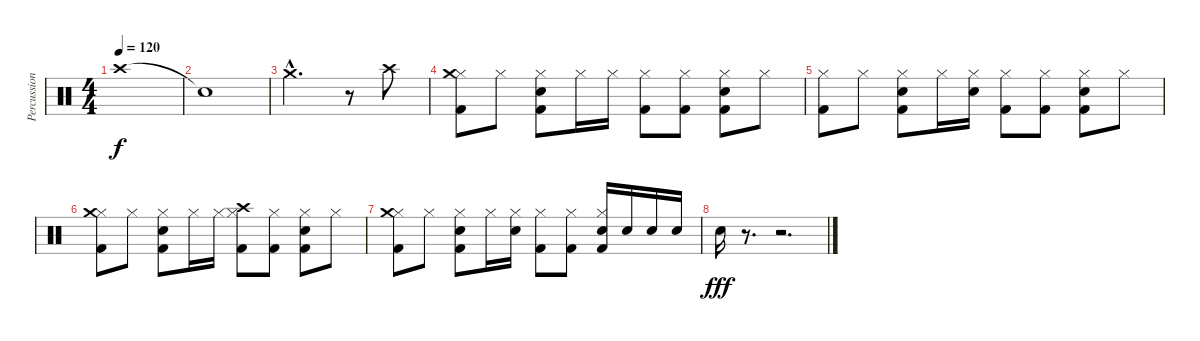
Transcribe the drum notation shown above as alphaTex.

\track ("Percussions" "Percussion") {instrument percussion}
\staff {score}
\articulation defaults
\ts (4 4)
\tempo 120
\clef neutral
\ks c "Crash high (hit)".1{dy f}
|
"Snare (hit)"{t}.1 |
"Crash medium (hit)"{hac}.2{d} r.8 "Crash high (hit)".8 |
("Hi-Hat (closed)" "Crash medium (hit)" "Kick (hit) 2").8 "Hi-Hat (closed)".8 ("Hi-Hat (closed)" "Snare (hit) 2" "Kick (hit) 2").8 "Hi-Hat (closed)".16 "Hi-Hat (closed)".16 ("Hi-Hat (closed)" "Kick (hit) 2").8 ("Hi-Hat (closed)" "Kick (hit) 2").8 ("Hi-Hat (closed)" "Snare (hit) 2" "Kick (hit) 2").8 "Hi-Hat (closed)".8 |
("Hi-Hat (closed)" "Kick (hit) 2").8 "Hi-Hat (closed)".8 ("Hi-Hat (closed)" "Snare (hit) 2" "Kick (hit) 2").8 "Hi-Hat (closed)".16 ("Hi-Hat (closed)" "Snare (hit) 2").16 ("Hi-Hat (closed)" "Kick (hit) 2").8 ("Hi-Hat (closed)" "Kick (hit) 2").8 ("Hi-Hat (closed)" "Snare (hit) 2" "Kick (hit) 2").8 "Hi-Hat (closed)".8 |
("Hi-Hat (closed)" "Crash medium (hit)" "Kick (hit) 2").8 "Hi-Hat (closed)".8 ("Hi-Hat (closed)" "Snare (hit) 2" "Kick (hit) 2").8 "Hi-Hat (closed)".16 "Hi-Hat (closed)".16 ("Hi-Hat (closed)" "Crash high (hit)" "Kick (hit) 2").8 ("Hi-Hat (closed)" "Kick (hit) 2").8 ("Hi-Hat (closed)" "Snare (hit) 2" "Kick (hit) 2").8 "Hi-Hat (closed)".8 |
("Hi-Hat (closed)" "Crash medium (hit)" "Kick (hit) 2").8 "Hi-Hat (closed)".8 ("Hi-Hat (closed)" "Snare (hit) 2" "Kick (hit) 2").8 "Hi-Hat (closed)".16 ("Hi-Hat (closed)" "Snare (hit) 2").16 ("Hi-Hat (closed)" "Kick (hit) 2").8 ("Hi-Hat (closed)" "Kick (hit) 2").8 ("Hi-Hat (closed)" "Snare (hit) 2" "Kick (hit) 2").16 "Snare (hit) 2".16 "Snare (hit) 2".16 "Snare (hit) 2".16 |
"Snare (hit) 2".16{dy fff} r.8{d} r.2{d}
